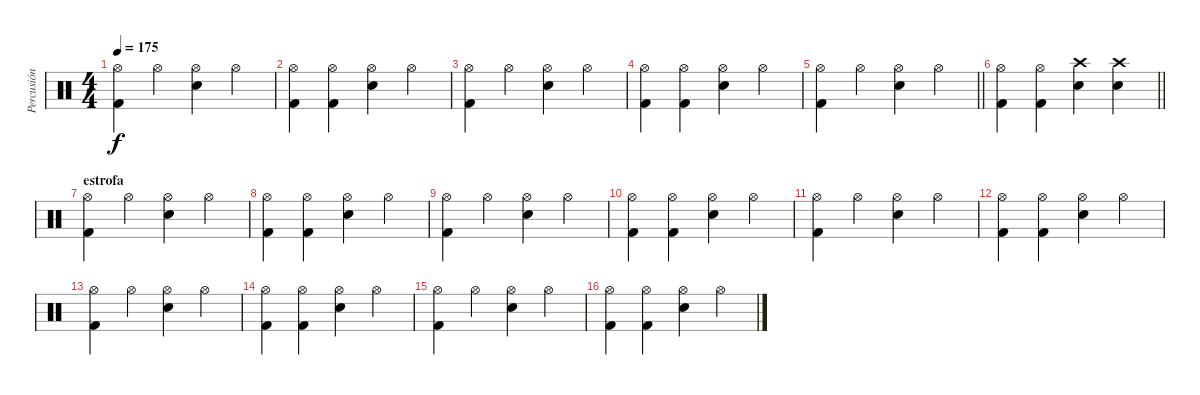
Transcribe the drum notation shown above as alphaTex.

\track ("Percusión" "Percusión") {instrument percussion}
\staff {score}
\articulation defaults
\ts (4 4)
\tempo 175
\clef neutral
\ks c
("Hi-Hat (open)" "Kick (hit) 2").4{dy f} "Hi-Hat (open)".4 ("Hi-Hat (open)" "Snare (hit) 2").4 "Hi-Hat (open)".4 |
("Hi-Hat (open)" "Kick (hit) 2").4 ("Hi-Hat (open)" "Kick (hit) 2").4 ("Hi-Hat (open)" "Snare (hit) 2").4 "Hi-Hat (open)".4 |
("Hi-Hat (open)" "Kick (hit) 2").4 "Hi-Hat (open)".4 ("Hi-Hat (open)" "Snare (hit) 2").4 "Hi-Hat (open)".4 |
("Hi-Hat (open)" "Kick (hit) 2").4 ("Hi-Hat (open)" "Kick (hit) 2").4 ("Hi-Hat (open)" "Snare (hit) 2").4 "Hi-Hat (open)".4 |
\barLineRight lightlight
("Hi-Hat (open)" "Kick (hit) 2").4 "Hi-Hat (open)".4 ("Hi-Hat (open)" "Snare (hit) 2").4 "Hi-Hat (open)".4 |
\barLineRight lightlight
("Hi-Hat (open)" "Kick (hit) 2").4 ("Hi-Hat (open)" "Kick (hit) 2").4 ("Crash high (hit)" "Snare (hit) 2").4 ("Crash high (hit)" "Snare (hit) 2").4 |
\section ("" "estrofa")
("Hi-Hat (open)" "Kick (hit) 2").4 "Hi-Hat (open)".4 ("Hi-Hat (open)" "Snare (hit) 2").4 "Hi-Hat (open)".4 |
("Hi-Hat (open)" "Kick (hit) 2").4 ("Hi-Hat (open)" "Kick (hit) 2").4 ("Hi-Hat (open)" "Snare (hit) 2").4 "Hi-Hat (open)".4 |
("Hi-Hat (open)" "Kick (hit) 2").4 "Hi-Hat (open)".4 ("Hi-Hat (open)" "Snare (hit) 2").4 "Hi-Hat (open)".4 |
("Hi-Hat (open)" "Kick (hit) 2").4 ("Hi-Hat (open)" "Kick (hit) 2").4 ("Hi-Hat (open)" "Snare (hit) 2").4 "Hi-Hat (open)".4 |
("Hi-Hat (open)" "Kick (hit) 2").4 "Hi-Hat (open)".4 ("Hi-Hat (open)" "Snare (hit) 2").4 "Hi-Hat (open)".4 |
("Hi-Hat (open)" "Kick (hit) 2").4 ("Hi-Hat (open)" "Kick (hit) 2").4 ("Hi-Hat (open)" "Snare (hit) 2").4 "Hi-Hat (open)".4 |
("Hi-Hat (open)" "Kick (hit) 2").4 "Hi-Hat (open)".4 ("Hi-Hat (open)" "Snare (hit) 2").4 "Hi-Hat (open)".4 |
("Hi-Hat (open)" "Kick (hit) 2").4 ("Hi-Hat (open)" "Kick (hit) 2").4 ("Hi-Hat (open)" "Snare (hit) 2").4 "Hi-Hat (open)".4 |
("Hi-Hat (open)" "Kick (hit) 2").4 "Hi-Hat (open)".4 ("Hi-Hat (open)" "Snare (hit) 2").4 "Hi-Hat (open)".4 |
("Hi-Hat (open)" "Kick (hit) 2").4 ("Hi-Hat (open)" "Kick (hit) 2").4 ("Hi-Hat (open)" "Snare (hit) 2").4 "Hi-Hat (open)".4
